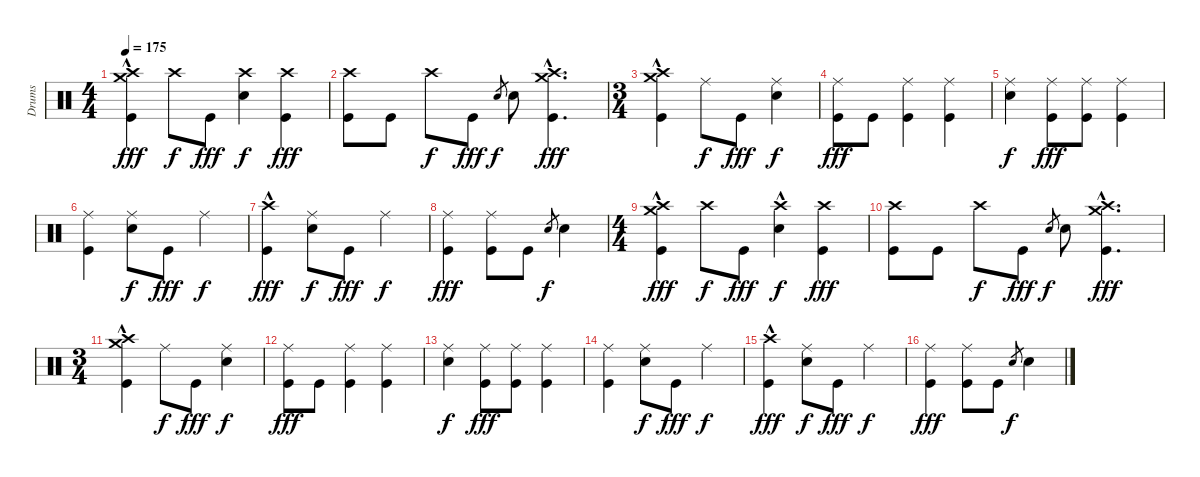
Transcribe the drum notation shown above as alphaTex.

\track ("Drums" "Drums") {instrument percussion}
\staff {score}
\articulation defaults
\ts (4 4)
\tempo 175
\clef neutral
\ks c
("Crash high (hit)"{hac} "Crash medium (hit)"{hac} "Kick (hit)").4{dy fff} "Crash high (hit)".8{dy f} "Kick (hit)".8{dy fff} ("Crash high (hit)" "Snare (hit) 2").4{dy f} ("Crash high (hit)" "Kick (hit)").4{dy fff} |
("Crash high (hit)" "Kick (hit)").8 "Kick (hit)".8 "Crash high (hit)".8{dy f} "Kick (hit)".8{dy fff} "Snare (hit) 2".8{gr dy f} "Snare (hit) 2".8 ("Crash high (hit)"{hac} "Crash medium (hit)"{hac} "Kick (hit)"{hac}).4{d dy fff} |
\ts (3 4)
("Crash high (hit)"{hac} "Crash medium (hit)"{hac} "Kick (hit)").4 "Ride (middle)".8{dy f} "Kick (hit)".8{dy fff} ("Ride (middle)" "Snare (hit) 2").4{dy f} |
("Ride (middle)" "Kick (hit)").8{dy fff} "Kick (hit)".8 ("Ride (middle)" "Kick (hit)").4 ("Ride (middle)" "Kick (hit)").4 |
("Ride (middle)" "Snare (hit) 2").4{dy f} ("Ride (middle)" "Kick (hit)").8{dy fff} ("Ride (middle)" "Kick (hit)").8 ("Ride (middle)" "Kick (hit)").4 |
("Ride (middle)" "Kick (hit)").4 ("Ride (middle)" "Snare (hit) 2").8{dy f} "Kick (hit)".8{dy fff} "Ride (middle)".4{dy f} |
("Crash high (hit)"{hac} "Kick (hit)").4{dy fff} ("Ride (middle)" "Snare (hit) 2").8{dy f} "Kick (hit)".8{dy fff} "Ride (middle)".4{dy f} |
("Ride (middle)" "Kick (hit)").4{dy fff} ("Ride (middle)" "Kick (hit)").8 "Kick (hit)".8 "Snare (hit) 2".8{gr dy f} "Snare (hit) 2".4 |
\ts (4 4)
("Crash high (hit)"{hac} "Crash medium (hit)"{hac} "Kick (hit)").4{dy fff} "Crash high (hit)".8{dy f} "Kick (hit)".8{dy fff} ("Crash high (hit)"{hac} "Snare (hit) 2").4{dy f} ("Crash high (hit)" "Kick (hit)").4{dy fff} |
("Crash high (hit)" "Kick (hit)").8 "Kick (hit)".8 "Crash high (hit)".8{dy f} "Kick (hit)".8{dy fff} "Snare (hit) 2".8{gr dy f} "Snare (hit) 2".8 ("Crash high (hit)"{hac} "Crash medium (hit)"{hac} "Kick (hit)"{hac}).4{d dy fff} |
\ts (3 4)
("Crash high (hit)"{hac} "Crash medium (hit)"{hac} "Kick (hit)").4 "Ride (middle)".8{dy f} "Kick (hit)".8{dy fff} ("Ride (middle)" "Snare (hit) 2").4{dy f} |
("Ride (middle)" "Kick (hit)").8{dy fff} "Kick (hit)".8 ("Ride (middle)" "Kick (hit)").4 ("Ride (middle)" "Kick (hit)").4 |
("Ride (middle)" "Snare (hit) 2").4{dy f} ("Ride (middle)" "Kick (hit)").8{dy fff} ("Ride (middle)" "Kick (hit)").8 ("Ride (middle)" "Kick (hit)").4 |
("Ride (middle)" "Kick (hit)").4 ("Ride (middle)" "Snare (hit) 2").8{dy f} "Kick (hit)".8{dy fff} "Ride (middle)".4{dy f} |
("Crash high (hit)"{hac} "Kick (hit)").4{dy fff} ("Ride (middle)" "Snare (hit) 2").8{dy f} "Kick (hit)".8{dy fff} "Ride (middle)".4{dy f} |
("Ride (middle)" "Kick (hit)").4{dy fff} ("Ride (middle)" "Kick (hit)").8 "Kick (hit)".8 "Snare (hit) 2".8{gr dy f} "Snare (hit) 2".4
